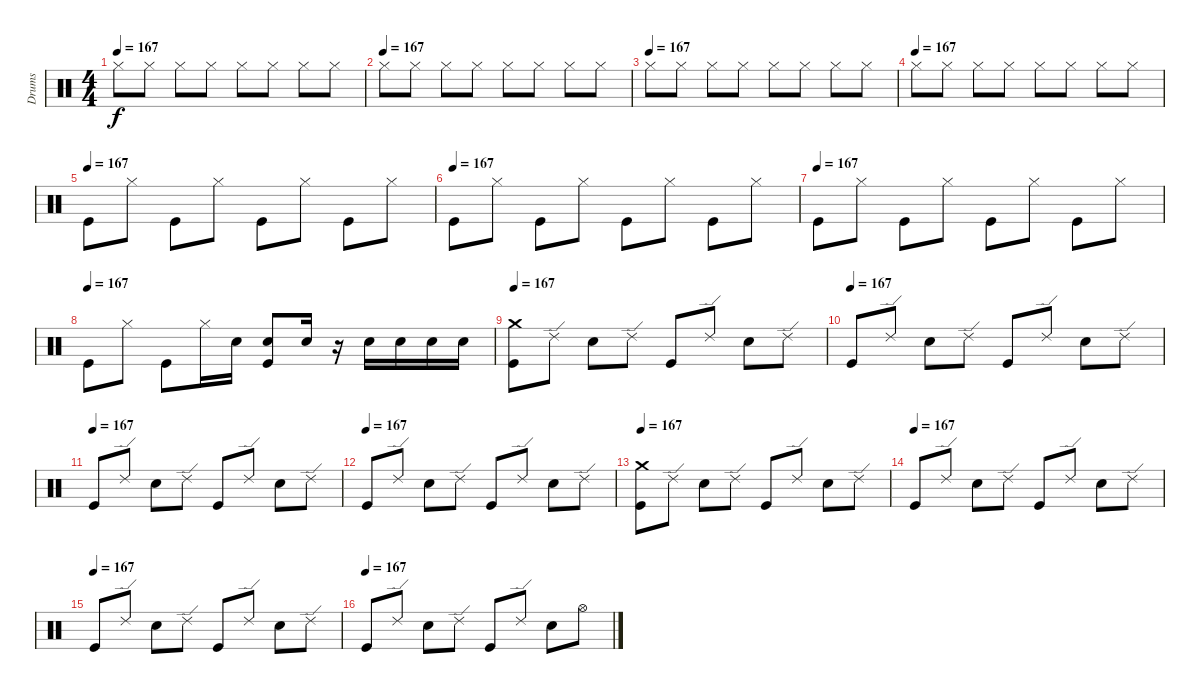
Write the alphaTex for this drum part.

\track ("Drums" "Drums") {instrument percussion}
\staff {score}
\articulation defaults
\ts (4 4)
\tempo 167
\clef neutral
\ks c "Hi-Hat (closed)".8{dy f} "Hi-Hat (closed)".8 "Hi-Hat (closed)".8 "Hi-Hat (closed)".8 "Hi-Hat (closed)".8 "Hi-Hat (closed)".8 "Hi-Hat (closed)".8 "Hi-Hat (closed)".8
|
\tempo (167)
"Hi-Hat (closed)".8 "Hi-Hat (closed)".8 "Hi-Hat (closed)".8 "Hi-Hat (closed)".8 "Hi-Hat (closed)".8 "Hi-Hat (closed)".8 "Hi-Hat (closed)".8 "Hi-Hat (closed)".8 |
\tempo (167)
"Hi-Hat (closed)".8 "Hi-Hat (closed)".8 "Hi-Hat (closed)".8 "Hi-Hat (closed)".8 "Hi-Hat (closed)".8 "Hi-Hat (closed)".8 "Hi-Hat (closed)".8 "Hi-Hat (closed)".8 |
\tempo (167)
"Hi-Hat (closed)".8 "Hi-Hat (closed)".8 "Hi-Hat (closed)".8 "Hi-Hat (closed)".8 "Hi-Hat (closed)".8 "Hi-Hat (closed)".8 "Hi-Hat (closed)".8 "Hi-Hat (closed)".8 |
\tempo (167)
"Kick (hit)".8 "Hi-Hat (closed)".8 "Kick (hit)".8 "Hi-Hat (closed)".8 "Kick (hit)".8 "Hi-Hat (closed)".8 "Kick (hit)".8 "Hi-Hat (closed)".8 |
\tempo (167)
"Kick (hit)".8 "Hi-Hat (closed)".8 "Kick (hit)".8 "Hi-Hat (closed)".8 "Kick (hit)".8 "Hi-Hat (closed)".8 "Kick (hit)".8 "Hi-Hat (closed)".8 |
\tempo (167)
"Kick (hit)".8 "Hi-Hat (closed)".8 "Kick (hit)".8 "Hi-Hat (closed)".8 "Kick (hit)".8 "Hi-Hat (closed)".8 "Kick (hit)".8 "Hi-Hat (closed)".8 |
\tempo (167)
"Kick (hit)".8 "Hi-Hat (closed)".8 "Kick (hit)".8 "Hi-Hat (closed)".16 "Electric Snare (hit)".16 ("Electric Snare (hit)" "Kick (hit)").8 "Electric Snare (hit)".16 r.16 "Electric Snare (hit)".16 "Electric Snare (hit)".16 "Electric Snare (hit)".16 "Electric Snare (hit)".16 |
\tempo 167
("Crash medium (hit)" "Kick (hit)").8 "Ride (edge) 2".8 "Electric Snare (hit)".8 "Ride (edge) 2".8 "Kick (hit)".8 "Ride (edge) 2".8 "Electric Snare (hit)".8 "Ride (edge) 2".8 |
\tempo (167)
"Kick (hit)".8 "Ride (edge) 2".8 "Electric Snare (hit)".8 "Ride (edge) 2".8 "Kick (hit)".8 "Ride (edge) 2".8 "Electric Snare (hit)".8 "Ride (edge) 2".8 |
\tempo (167)
"Kick (hit)".8 "Ride (edge) 2".8 "Electric Snare (hit)".8 "Ride (edge) 2".8 "Kick (hit)".8 "Ride (edge) 2".8 "Electric Snare (hit)".8 "Ride (edge) 2".8 |
\tempo (167)
"Kick (hit)".8 "Ride (edge) 2".8 "Electric Snare (hit)".8 "Ride (edge) 2".8 "Kick (hit)".8 "Ride (edge) 2".8 "Electric Snare (hit)".8 "Ride (edge) 2".8 |
\tempo 167
("Kick (hit)" "Crash medium (hit)").8 "Ride (edge) 2".8 "Electric Snare (hit)".8 "Ride (edge) 2".8 "Kick (hit)".8 "Ride (edge) 2".8 "Electric Snare (hit)".8 "Ride (edge) 2".8 |
\tempo (167)
"Kick (hit)".8 "Ride (edge) 2".8 "Electric Snare (hit)".8 "Ride (edge) 2".8 "Kick (hit)".8 "Ride (edge) 2".8 "Electric Snare (hit)".8 "Ride (edge) 2".8 |
\tempo (167)
"Kick (hit)".8 "Ride (edge) 2".8 "Electric Snare (hit)".8 "Ride (edge) 2".8 "Kick (hit)".8 "Ride (edge) 2".8 "Electric Snare (hit)".8 "Ride (edge) 2".8 |
\tempo (167)
"Kick (hit)".8 "Ride (edge) 2".8 "Electric Snare (hit)".8 "Ride (edge) 2".8 "Kick (hit)".8 "Ride (edge) 2".8 "Electric Snare (hit)".8 "Hi-Hat (open)".8
